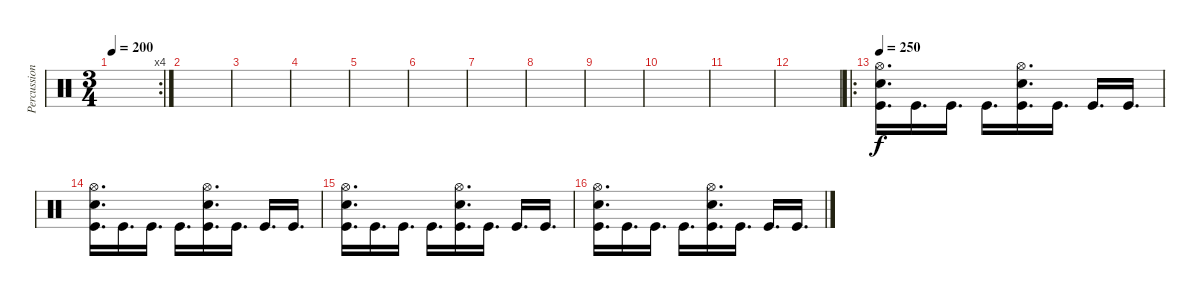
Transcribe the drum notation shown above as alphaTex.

\track ("Percussion" "Percussion") {instrument percussion}
\staff {score}
\articulation defaults
\rc 4
\ts (3 4)
\tempo 200
\clef neutral
\ks c
|
|
|
|
|
|
|
|
|
|
|
|
\ro
\tempo 250
("Hi-Hat (open)" "Snare (hit) 2" "Kick (hit)").16{d} "Kick (hit)".16{d} "Kick (hit)".16{d} "Kick (hit)".16{d} ("Hi-Hat (open)" "Snare (hit) 2" "Kick (hit)").16{d} "Kick (hit)".16{d} "Kick (hit)".16{d} "Kick (hit)".16{d} |
("Hi-Hat (open)" "Snare (hit) 2" "Kick (hit)").16{d} "Kick (hit)".16{d} "Kick (hit)".16{d} "Kick (hit)".16{d} ("Hi-Hat (open)" "Snare (hit) 2" "Kick (hit)").16{d} "Kick (hit)".16{d} "Kick (hit)".16{d} "Kick (hit)".16{d} |
("Hi-Hat (open)" "Snare (hit) 2" "Kick (hit)").16{d} "Kick (hit)".16{d} "Kick (hit)".16{d} "Kick (hit)".16{d} ("Hi-Hat (open)" "Snare (hit) 2" "Kick (hit)").16{d} "Kick (hit)".16{d} "Kick (hit)".16{d} "Kick (hit)".16{d} |
("Hi-Hat (open)" "Snare (hit) 2" "Kick (hit)").16{d} "Kick (hit)".16{d} "Kick (hit)".16{d} "Kick (hit)".16{d} ("Hi-Hat (open)" "Snare (hit) 2" "Kick (hit)").16{d} "Kick (hit)".16{d} "Kick (hit)".16{d} "Kick (hit)".16{d}
